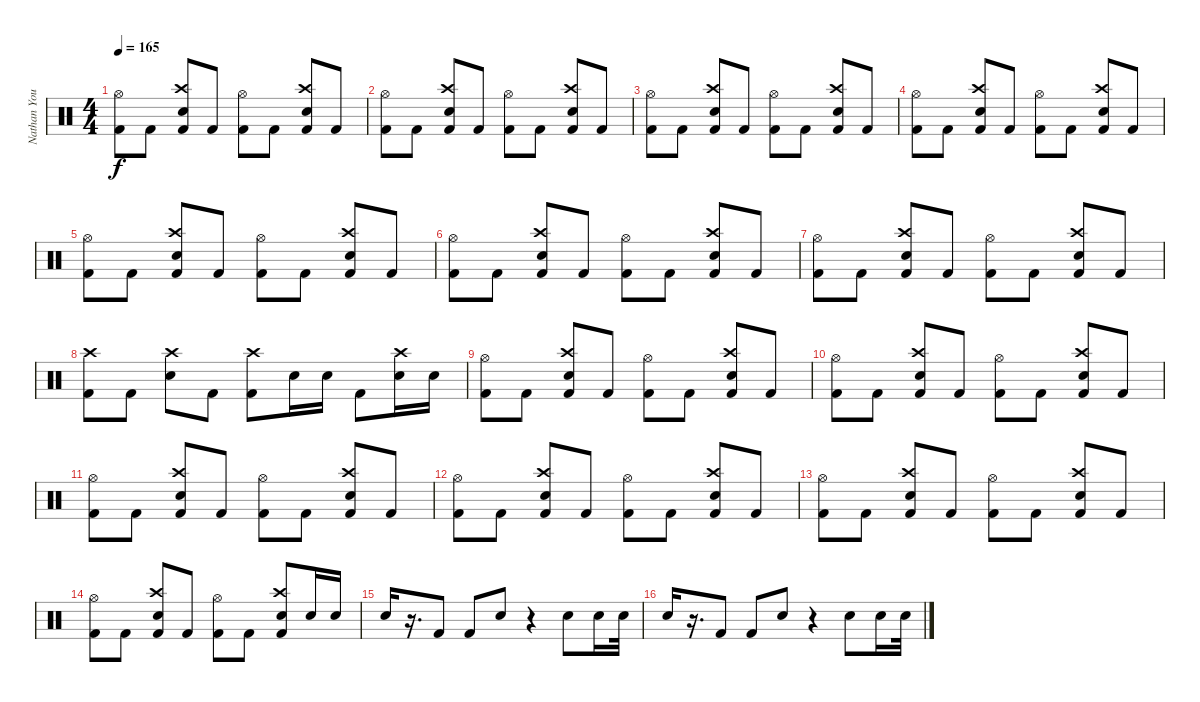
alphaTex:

\track ("Nathan Young" "Nathan You") {instrument percussion}
\staff {score}
\articulation defaults
\ts (4 4)
\tempo 165
\clef neutral
\ks c
("Hi-Hat (open)" "Kick (hit) 2").8{dy f} "Kick (hit) 2".8 ("Crash high (hit)" "Snare (hit) 2" "Kick (hit) 2").8 "Kick (hit) 2".8 ("Hi-Hat (open)" "Kick (hit) 2").8 "Kick (hit) 2".8 ("Crash high (hit)" "Snare (hit) 2" "Kick (hit) 2").8 "Kick (hit) 2".8 |
("Hi-Hat (open)" "Kick (hit) 2").8 "Kick (hit) 2".8 ("Crash high (hit)" "Snare (hit) 2" "Kick (hit) 2").8 "Kick (hit) 2".8 ("Hi-Hat (open)" "Kick (hit) 2").8 "Kick (hit) 2".8 ("Crash high (hit)" "Snare (hit) 2" "Kick (hit) 2").8 "Kick (hit) 2".8 |
("Hi-Hat (open)" "Kick (hit) 2").8 "Kick (hit) 2".8 ("Crash high (hit)" "Snare (hit) 2" "Kick (hit) 2").8 "Kick (hit) 2".8 ("Hi-Hat (open)" "Kick (hit) 2").8 "Kick (hit) 2".8 ("Crash high (hit)" "Snare (hit) 2" "Kick (hit) 2").8 "Kick (hit) 2".8 |
("Hi-Hat (open)" "Kick (hit) 2").8 "Kick (hit) 2".8 ("Crash high (hit)" "Snare (hit) 2" "Kick (hit) 2").8 "Kick (hit) 2".8 ("Hi-Hat (open)" "Kick (hit) 2").8 "Kick (hit) 2".8 ("Crash high (hit)" "Snare (hit) 2" "Kick (hit) 2").8 "Kick (hit) 2".8 |
("Hi-Hat (open)" "Kick (hit) 2").8 "Kick (hit) 2".8 ("Crash high (hit)" "Snare (hit) 2" "Kick (hit) 2").8 "Kick (hit) 2".8 ("Hi-Hat (open)" "Kick (hit) 2").8 "Kick (hit) 2".8 ("Crash high (hit)" "Snare (hit) 2" "Kick (hit) 2").8 "Kick (hit) 2".8 |
("Hi-Hat (open)" "Kick (hit) 2").8 "Kick (hit) 2".8 ("Crash high (hit)" "Snare (hit) 2" "Kick (hit) 2").8 "Kick (hit) 2".8 ("Hi-Hat (open)" "Kick (hit) 2").8 "Kick (hit) 2".8 ("Crash high (hit)" "Snare (hit) 2" "Kick (hit) 2").8 "Kick (hit) 2".8 |
("Hi-Hat (open)" "Kick (hit) 2").8 "Kick (hit) 2".8 ("Crash high (hit)" "Snare (hit) 2" "Kick (hit) 2").8 "Kick (hit) 2".8 ("Hi-Hat (open)" "Kick (hit) 2").8 "Kick (hit) 2".8 ("Crash high (hit)" "Snare (hit) 2" "Kick (hit) 2").8 "Kick (hit) 2".8 |
("Crash high (hit)" "Kick (hit) 2").8 "Kick (hit) 2".8 ("Crash high (hit)" "Snare (hit) 2").8 "Kick (hit) 2".8 ("Crash high (hit)" "Kick (hit) 2").8 "Snare (hit) 2".16 "Snare (hit) 2".16 "Kick (hit) 2".8 ("Crash high (hit)" "Snare (hit) 2").16 "Snare (hit) 2".16 |
("Hi-Hat (open)" "Kick (hit) 2").8 "Kick (hit) 2".8 ("Crash high (hit)" "Snare (hit) 2" "Kick (hit) 2").8 "Kick (hit) 2".8 ("Hi-Hat (open)" "Kick (hit) 2").8 "Kick (hit) 2".8 ("Crash high (hit)" "Snare (hit) 2" "Kick (hit) 2").8 "Kick (hit) 2".8 |
("Hi-Hat (open)" "Kick (hit) 2").8 "Kick (hit) 2".8 ("Crash high (hit)" "Snare (hit) 2" "Kick (hit) 2").8 "Kick (hit) 2".8 ("Hi-Hat (open)" "Kick (hit) 2").8 "Kick (hit) 2".8 ("Crash high (hit)" "Snare (hit) 2" "Kick (hit) 2").8 "Kick (hit) 2".8 |
("Hi-Hat (open)" "Kick (hit) 2").8 "Kick (hit) 2".8 ("Crash high (hit)" "Snare (hit) 2" "Kick (hit) 2").8 "Kick (hit) 2".8 ("Hi-Hat (open)" "Kick (hit) 2").8 "Kick (hit) 2".8 ("Crash high (hit)" "Snare (hit) 2" "Kick (hit) 2").8 "Kick (hit) 2".8 |
("Hi-Hat (open)" "Kick (hit) 2").8 "Kick (hit) 2".8 ("Crash high (hit)" "Snare (hit) 2" "Kick (hit) 2").8 "Kick (hit) 2".8 ("Hi-Hat (open)" "Kick (hit) 2").8 "Kick (hit) 2".8 ("Crash high (hit)" "Snare (hit) 2" "Kick (hit) 2").8 "Kick (hit) 2".8 |
("Hi-Hat (open)" "Kick (hit) 2").8 "Kick (hit) 2".8 ("Crash high (hit)" "Snare (hit) 2" "Kick (hit) 2").8 "Kick (hit) 2".8 ("Hi-Hat (open)" "Kick (hit) 2").8 "Kick (hit) 2".8 ("Crash high (hit)" "Snare (hit) 2" "Kick (hit) 2").8 "Kick (hit) 2".8 |
("Hi-Hat (open)" "Kick (hit) 2").8 "Kick (hit) 2".8 ("Crash high (hit)" "Snare (hit) 2" "Kick (hit) 2").8 "Kick (hit) 2".8 ("Hi-Hat (open)" "Kick (hit) 2").8 "Kick (hit) 2".8 ("Crash high (hit)" "Snare (hit) 2" "Kick (hit) 2").8 "Snare (hit) 2".16 "Snare (hit) 2".16 |
"Snare (hit) 2".16 r.16{d} "Kick (hit) 2".8 "Kick (hit) 2".8 "Snare (hit) 2".8 r.4 "Snare (hit) 2".8 "Snare (hit) 2".16 "Snare (hit) 2".32 |
"Snare (hit) 2".16 r.16{d} "Kick (hit) 2".8 "Kick (hit) 2".8 "Snare (hit) 2".8 r.4 "Snare (hit) 2".8 "Snare (hit) 2".16 "Snare (hit) 2".32
